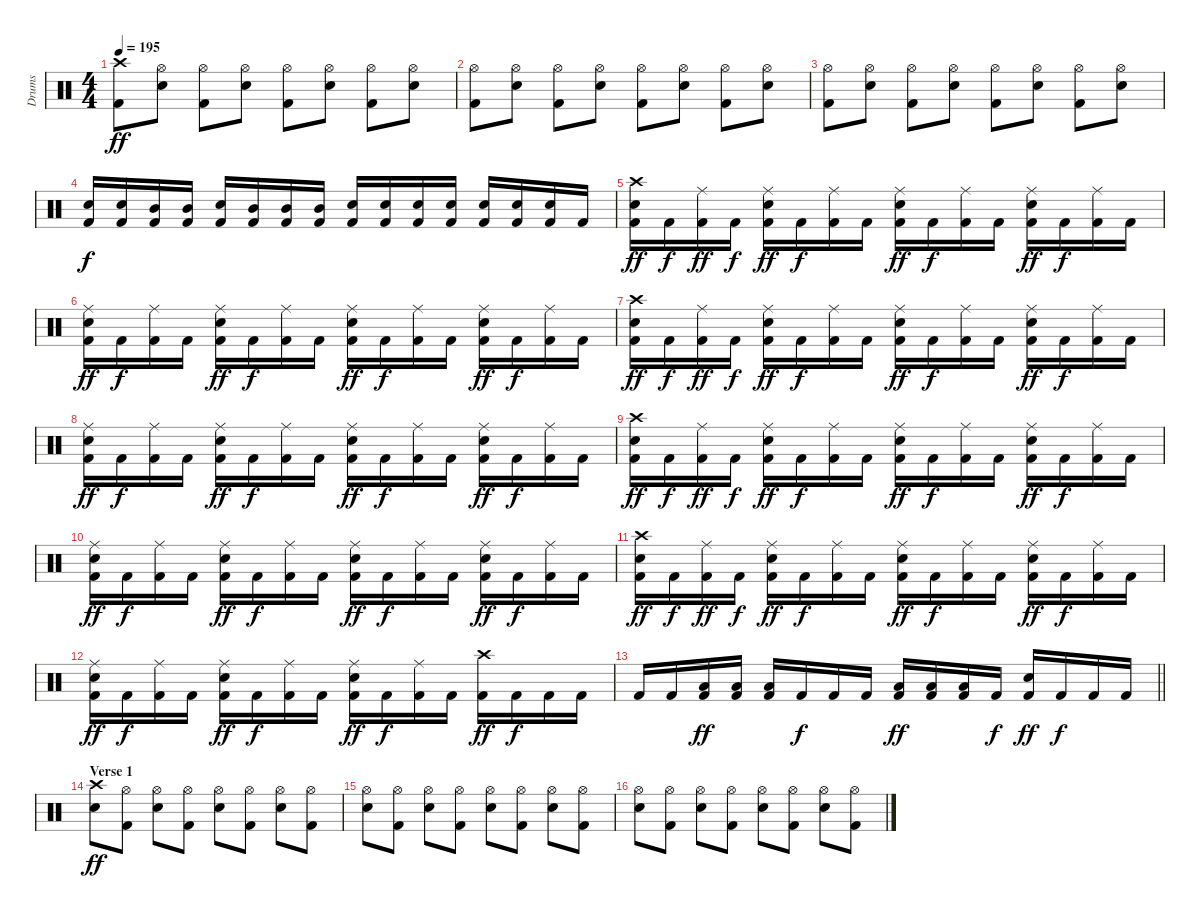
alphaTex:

\track ("Drums" "Drums") {instrument percussion}
\staff {score}
\articulation defaults
\ts (4 4)
\tempo 195
\clef neutral
\ks c
("Crash high (hit)" "Kick (hit) 2").8{dy ff} ("Hi-Hat (open)" "Snare (hit) 2").8 ("Hi-Hat (open)" "Kick (hit) 2").8 ("Hi-Hat (open)" "Snare (hit) 2").8 ("Hi-Hat (open)" "Kick (hit) 2").8 ("Hi-Hat (open)" "Snare (hit) 2").8 ("Hi-Hat (open)" "Kick (hit) 2").8 ("Hi-Hat (open)" "Snare (hit) 2").8 |
("Hi-Hat (open)" "Kick (hit) 2").8 ("Hi-Hat (open)" "Snare (hit) 2").8 ("Hi-Hat (open)" "Kick (hit) 2").8 ("Hi-Hat (open)" "Snare (hit) 2").8 ("Hi-Hat (open)" "Kick (hit) 2").8 ("Hi-Hat (open)" "Snare (hit) 2").8 ("Hi-Hat (open)" "Kick (hit) 2").8 ("Hi-Hat (open)" "Snare (hit) 2").8 |
("Hi-Hat (open)" "Kick (hit) 2").8 ("Hi-Hat (open)" "Snare (hit) 2").8 ("Hi-Hat (open)" "Kick (hit) 2").8 ("Hi-Hat (open)" "Snare (hit) 2").8 ("Hi-Hat (open)" "Kick (hit) 2").8 ("Hi-Hat (open)" "Snare (hit) 2").8 ("Hi-Hat (open)" "Kick (hit) 2").8 ("Hi-Hat (open)" "Snare (hit) 2").8 |
("Snare (hit) 2" "Kick (hit) 2").16{dy f} ("Snare (hit) 2" "Kick (hit) 2").16 ("Mid Tom (hit)" "Kick (hit) 2").16 ("Mid Tom (hit)" "Kick (hit) 2").16 ("Snare (hit) 2" "Kick (hit) 2").16 ("Mid Tom (hit)" "Kick (hit) 2").16 ("Mid Tom (hit)" "Kick (hit) 2").16 ("Mid Tom (hit)" "Kick (hit) 2").16 ("Snare (hit) 2" "Kick (hit) 2").16 ("Snare (hit) 2" "Kick (hit) 2").16 ("Snare (hit) 2" "Kick (hit) 2").16 ("Snare (hit) 2" "Kick (hit) 2").16 ("Snare (hit) 2" "Kick (hit) 2").16 ("Snare (hit) 2" "Kick (hit) 2").16 ("Snare (hit) 2" "Kick (hit) 2").16 "Kick (hit) 2".16 |
("Crash high (hit)" "Snare (hit) 2" "Kick (hit) 2").16{dy ff} "Kick (hit) 2".16{dy f} ("Ride (middle)" "Kick (hit) 2").16{dy ff} "Kick (hit) 2".16{dy f} ("Ride (middle)" "Snare (hit) 2" "Kick (hit) 2").16{dy ff} "Kick (hit) 2".16{dy f} ("Ride (middle)" "Kick (hit) 2").16 "Kick (hit) 2".16 ("Ride (middle)" "Snare (hit) 2" "Kick (hit) 2").16{dy ff} "Kick (hit) 2".16{dy f} ("Ride (middle)" "Kick (hit) 2").16 "Kick (hit) 2".16 ("Ride (middle)" "Snare (hit) 2" "Kick (hit) 2").16{dy ff} "Kick (hit) 2".16{dy f} ("Ride (middle)" "Kick (hit) 2").16 "Kick (hit) 2".16 |
("Ride (middle)" "Snare (hit) 2" "Kick (hit) 2").16{dy ff} "Kick (hit) 2".16{dy f} ("Ride (middle)" "Kick (hit) 2").16 "Kick (hit) 2".16 ("Ride (middle)" "Snare (hit) 2" "Kick (hit) 2").16{dy ff} "Kick (hit) 2".16{dy f} ("Ride (middle)" "Kick (hit) 2").16 "Kick (hit) 2".16 ("Ride (middle)" "Snare (hit) 2" "Kick (hit) 2").16{dy ff} "Kick (hit) 2".16{dy f} ("Ride (middle)" "Kick (hit) 2").16 "Kick (hit) 2".16 ("Ride (middle)" "Snare (hit) 2" "Kick (hit) 2").16{dy ff} "Kick (hit) 2".16{dy f} ("Ride (middle)" "Kick (hit) 2").16 "Kick (hit) 2".16 |
("Crash high (hit)" "Snare (hit) 2" "Kick (hit) 2").16{dy ff} "Kick (hit) 2".16{dy f} ("Ride (middle)" "Kick (hit) 2").16{dy ff} "Kick (hit) 2".16{dy f} ("Ride (middle)" "Snare (hit) 2" "Kick (hit) 2").16{dy ff} "Kick (hit) 2".16{dy f} ("Ride (middle)" "Kick (hit) 2").16 "Kick (hit) 2".16 ("Ride (middle)" "Snare (hit) 2" "Kick (hit) 2").16{dy ff} "Kick (hit) 2".16{dy f} ("Ride (middle)" "Kick (hit) 2").16 "Kick (hit) 2".16 ("Ride (middle)" "Snare (hit) 2" "Kick (hit) 2").16{dy ff} "Kick (hit) 2".16{dy f} ("Ride (middle)" "Kick (hit) 2").16 "Kick (hit) 2".16 |
("Ride (middle)" "Snare (hit) 2" "Kick (hit) 2").16{dy ff} "Kick (hit) 2".16{dy f} ("Ride (middle)" "Kick (hit) 2").16 "Kick (hit) 2".16 ("Ride (middle)" "Snare (hit) 2" "Kick (hit) 2").16{dy ff} "Kick (hit) 2".16{dy f} ("Ride (middle)" "Kick (hit) 2").16 "Kick (hit) 2".16 ("Ride (middle)" "Snare (hit) 2" "Kick (hit) 2").16{dy ff} "Kick (hit) 2".16{dy f} ("Ride (middle)" "Kick (hit) 2").16 "Kick (hit) 2".16 ("Ride (middle)" "Snare (hit) 2" "Kick (hit) 2").16{dy ff} "Kick (hit) 2".16{dy f} ("Ride (middle)" "Kick (hit) 2").16 "Kick (hit) 2".16 |
("Crash high (hit)" "Snare (hit) 2" "Kick (hit) 2").16{dy ff} "Kick (hit) 2".16{dy f} ("Ride (middle)" "Kick (hit) 2").16{dy ff} "Kick (hit) 2".16{dy f} ("Ride (middle)" "Snare (hit) 2" "Kick (hit) 2").16{dy ff} "Kick (hit) 2".16{dy f} ("Ride (middle)" "Kick (hit) 2").16 "Kick (hit) 2".16 ("Ride (middle)" "Snare (hit) 2" "Kick (hit) 2").16{dy ff} "Kick (hit) 2".16{dy f} ("Ride (middle)" "Kick (hit) 2").16 "Kick (hit) 2".16 ("Ride (middle)" "Snare (hit) 2" "Kick (hit) 2").16{dy ff} "Kick (hit) 2".16{dy f} ("Ride (middle)" "Kick (hit) 2").16 "Kick (hit) 2".16 |
("Ride (middle)" "Snare (hit) 2" "Kick (hit) 2").16{dy ff} "Kick (hit) 2".16{dy f} ("Ride (middle)" "Kick (hit) 2").16 "Kick (hit) 2".16 ("Ride (middle)" "Snare (hit) 2" "Kick (hit) 2").16{dy ff} "Kick (hit) 2".16{dy f} ("Ride (middle)" "Kick (hit) 2").16 "Kick (hit) 2".16 ("Ride (middle)" "Snare (hit) 2" "Kick (hit) 2").16{dy ff} "Kick (hit) 2".16{dy f} ("Ride (middle)" "Kick (hit) 2").16 "Kick (hit) 2".16 ("Ride (middle)" "Snare (hit) 2" "Kick (hit) 2").16{dy ff} "Kick (hit) 2".16{dy f} ("Ride (middle)" "Kick (hit) 2").16 "Kick (hit) 2".16 |
("Crash high (hit)" "Snare (hit) 2" "Kick (hit) 2").16{dy ff} "Kick (hit) 2".16{dy f} ("Ride (middle)" "Kick (hit) 2").16{dy ff} "Kick (hit) 2".16{dy f} ("Ride (middle)" "Snare (hit) 2" "Kick (hit) 2").16{dy ff} "Kick (hit) 2".16{dy f} ("Ride (middle)" "Kick (hit) 2").16 "Kick (hit) 2".16 ("Ride (middle)" "Snare (hit) 2" "Kick (hit) 2").16{dy ff} "Kick (hit) 2".16{dy f} ("Ride (middle)" "Kick (hit) 2").16 "Kick (hit) 2".16 ("Ride (middle)" "Snare (hit) 2" "Kick (hit) 2").16{dy ff} "Kick (hit) 2".16{dy f} ("Ride (middle)" "Kick (hit) 2").16 "Kick (hit) 2".16 |
("Ride (middle)" "Snare (hit) 2" "Kick (hit) 2").16{dy ff} "Kick (hit) 2".16{dy f} ("Ride (middle)" "Kick (hit) 2").16 "Kick (hit) 2".16 ("Ride (middle)" "Snare (hit) 2" "Kick (hit) 2").16{dy ff} "Kick (hit) 2".16{dy f} ("Ride (middle)" "Kick (hit) 2").16 "Kick (hit) 2".16 ("Ride (middle)" "Snare (hit) 2" "Kick (hit) 2").16{dy ff} "Kick (hit) 2".16{dy f} ("Ride (middle)" "Kick (hit) 2").16 "Kick (hit) 2".16 ("Crash high (hit)" "Kick (hit) 2").16{dy ff} "Kick (hit) 2".16{dy f} "Kick (hit) 2".16 "Kick (hit) 2".16 |
\barLineRight lightlight "Kick (hit) 2".16 "Kick (hit) 2".16
("Low Tom (hit)" "Kick (hit) 2").16{dy ff} ("Low Tom (hit)" "Kick (hit) 2").16 ("Low Tom (hit)" "Kick (hit) 2").16 "Kick (hit) 2".16{dy f} "Kick (hit) 2".16 "Kick (hit) 2".16 ("Low Tom (hit)" "Kick (hit) 2").16{dy ff} ("Low Tom (hit)" "Kick (hit) 2").16 ("Low Tom (hit)" "Kick (hit) 2").16 "Kick (hit) 2".16{dy f} ("Snare (hit) 2" "Kick (hit) 2").16{dy ff} "Kick (hit) 2".16{dy f} "Kick (hit) 2".16 "Kick (hit) 2".16 |
\section ("" "Verse 1")
("Crash high (hit)" "Snare (hit) 2").8{dy ff} ("Hi-Hat (open)" "Kick (hit) 2").8 ("Hi-Hat (open)" "Snare (hit) 2").8 ("Hi-Hat (open)" "Kick (hit) 2").8 ("Hi-Hat (open)" "Snare (hit) 2").8 ("Hi-Hat (open)" "Kick (hit) 2").8 ("Hi-Hat (open)" "Snare (hit) 2").8 ("Hi-Hat (open)" "Kick (hit) 2").8 |
("Hi-Hat (open)" "Snare (hit) 2").8 ("Hi-Hat (open)" "Kick (hit) 2").8 ("Hi-Hat (open)" "Snare (hit) 2").8 ("Hi-Hat (open)" "Kick (hit) 2").8 ("Hi-Hat (open)" "Snare (hit) 2").8 ("Hi-Hat (open)" "Kick (hit) 2").8 ("Hi-Hat (open)" "Snare (hit) 2").8 ("Hi-Hat (open)" "Kick (hit) 2").8 |
("Hi-Hat (open)" "Snare (hit) 2").8 ("Hi-Hat (open)" "Kick (hit) 2").8 ("Hi-Hat (open)" "Snare (hit) 2").8 ("Hi-Hat (open)" "Kick (hit) 2").8 ("Hi-Hat (open)" "Snare (hit) 2").8 ("Hi-Hat (open)" "Kick (hit) 2").8 ("Hi-Hat (open)" "Snare (hit) 2").8 ("Hi-Hat (open)" "Kick (hit) 2").8
